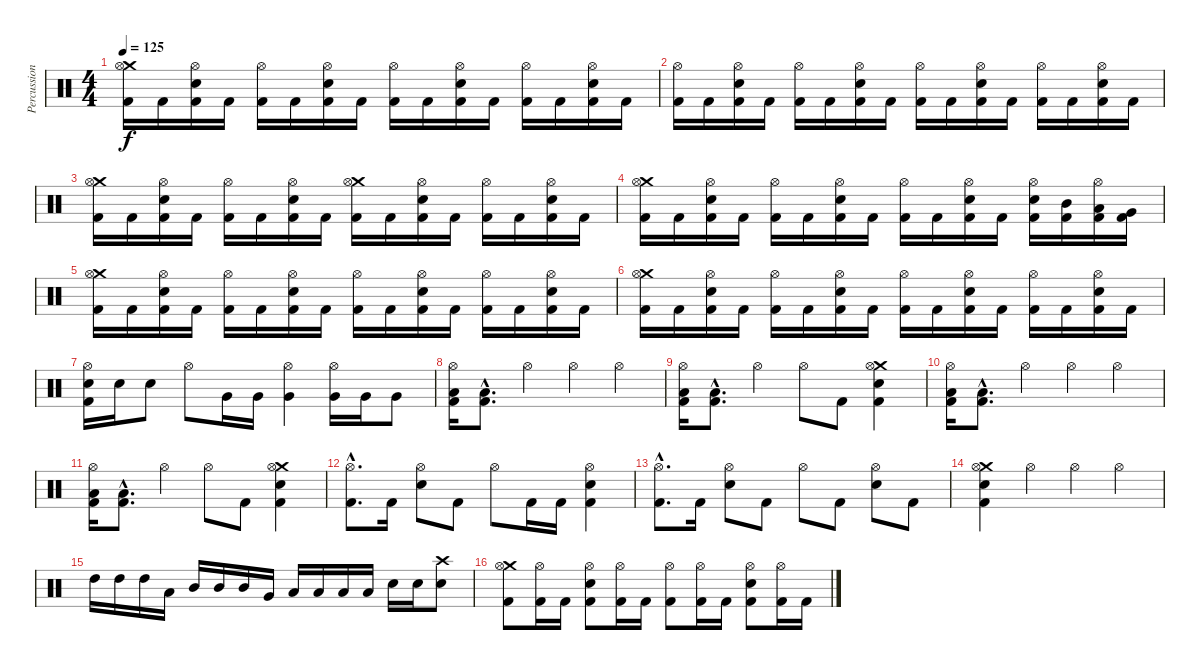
\track ("Percussion" "Percussion") {instrument percussion}
\staff {score}
\articulation defaults
\ts (4 4)
\tempo 125
\clef neutral
\ks c
("Crash medium (hit)" "Hi-Hat (open)" "Kick (hit) 2").16{dy f} "Kick (hit) 2".16 ("Hi-Hat (open)" "Electric Snare (hit)" "Kick (hit) 2").16 "Kick (hit) 2".16 ("Hi-Hat (open)" "Kick (hit) 2").16 "Kick (hit) 2".16 ("Hi-Hat (open)" "Electric Snare (hit)" "Kick (hit) 2").16 "Kick (hit) 2".16 ("Hi-Hat (open)" "Kick (hit) 2").16 "Kick (hit) 2".16 ("Hi-Hat (open)" "Electric Snare (hit)" "Kick (hit) 2").16 "Kick (hit) 2".16 ("Hi-Hat (open)" "Kick (hit) 2").16 "Kick (hit) 2".16 ("Hi-Hat (open)" "Electric Snare (hit)" "Kick (hit) 2").16 "Kick (hit) 2".16 |
("Hi-Hat (open)" "Kick (hit) 2").16 "Kick (hit) 2".16 ("Hi-Hat (open)" "Electric Snare (hit)" "Kick (hit) 2").16 "Kick (hit) 2".16 ("Hi-Hat (open)" "Kick (hit) 2").16 "Kick (hit) 2".16 ("Hi-Hat (open)" "Electric Snare (hit)" "Kick (hit) 2").16 "Kick (hit) 2".16 ("Hi-Hat (open)" "Kick (hit) 2").16 "Kick (hit) 2".16 ("Hi-Hat (open)" "Electric Snare (hit)" "Kick (hit) 2").16 "Kick (hit) 2".16 ("Hi-Hat (open)" "Kick (hit) 2").16 "Kick (hit) 2".16 ("Hi-Hat (open)" "Electric Snare (hit)" "Kick (hit) 2").16 "Kick (hit) 2".16 |
("Crash medium (hit)" "Hi-Hat (open)" "Kick (hit) 2").16 "Kick (hit) 2".16 ("Hi-Hat (open)" "Electric Snare (hit)" "Kick (hit) 2").16 "Kick (hit) 2".16 ("Hi-Hat (open)" "Kick (hit) 2").16 "Kick (hit) 2".16 ("Hi-Hat (open)" "Electric Snare (hit)" "Kick (hit) 2").16 "Kick (hit) 2".16 ("Crash medium (hit)" "Hi-Hat (open)" "Kick (hit) 2").16 "Kick (hit) 2".16 ("Hi-Hat (open)" "Electric Snare (hit)" "Kick (hit) 2").16 "Kick (hit) 2".16 ("Hi-Hat (open)" "Kick (hit) 2").16 "Kick (hit) 2".16 ("Hi-Hat (open)" "Electric Snare (hit)" "Kick (hit) 2").16 "Kick (hit) 2".16 |
("Crash medium (hit)" "Hi-Hat (open)" "Kick (hit) 2").16 "Kick (hit) 2".16 ("Hi-Hat (open)" "Electric Snare (hit)" "Kick (hit) 2").16 "Kick (hit) 2".16 ("Hi-Hat (open)" "Kick (hit) 2").16 "Kick (hit) 2".16 ("Hi-Hat (open)" "Electric Snare (hit)" "Kick (hit) 2").16 "Kick (hit) 2".16 ("Hi-Hat (open)" "Kick (hit) 2").16 "Kick (hit) 2".16 ("Hi-Hat (open)" "Electric Snare (hit)" "Kick (hit) 2").16 "Kick (hit) 2".16 ("Hi-Hat (open)" "Electric Snare (hit)" "Kick (hit) 2").16 ("Mid Tom (hit)" "Kick (hit) 2").16 ("Hi-Hat (open)" "Low Tom (hit)" "Kick (hit) 2").16 ("Very Low Tom (hit)" "Kick (hit) 2").16 |
("Crash medium (hit)" "Hi-Hat (open)" "Kick (hit) 2").16 "Kick (hit) 2".16 ("Hi-Hat (open)" "Electric Snare (hit)" "Kick (hit) 2").16 "Kick (hit) 2".16 ("Hi-Hat (open)" "Kick (hit) 2").16 "Kick (hit) 2".16 ("Hi-Hat (open)" "Electric Snare (hit)" "Kick (hit) 2").16 "Kick (hit) 2".16 ("Hi-Hat (open)" "Kick (hit) 2").16 "Kick (hit) 2".16 ("Hi-Hat (open)" "Electric Snare (hit)" "Kick (hit) 2").16 "Kick (hit) 2".16 ("Hi-Hat (open)" "Kick (hit) 2").16 "Kick (hit) 2".16 ("Hi-Hat (open)" "Electric Snare (hit)" "Kick (hit) 2").16 "Kick (hit) 2".16 |
("Crash medium (hit)" "Hi-Hat (open)" "Kick (hit) 2").16 "Kick (hit) 2".16 ("Hi-Hat (open)" "Electric Snare (hit)" "Kick (hit) 2").16 "Kick (hit) 2".16 ("Hi-Hat (open)" "Kick (hit) 2").16 "Kick (hit) 2".16 ("Hi-Hat (open)" "Electric Snare (hit)" "Kick (hit) 2").16 "Kick (hit) 2".16 ("Hi-Hat (open)" "Kick (hit) 2").16 "Kick (hit) 2".16 ("Hi-Hat (open)" "Electric Snare (hit)" "Kick (hit) 2").16 "Kick (hit) 2".16 ("Hi-Hat (open)" "Kick (hit) 2").16 "Kick (hit) 2".16 ("Hi-Hat (open)" "Electric Snare (hit)" "Kick (hit) 2").16 "Kick (hit) 2".16 |
("Hi-Hat (open)" "Electric Snare (hit)" "Kick (hit) 2").16 "Electric Snare (hit)".16 "Electric Snare (hit)".8 "Hi-Hat (open)".8 "Very Low Tom (hit)".16 "Very Low Tom (hit)".16 ("Hi-Hat (open)" "Very Low Tom (hit)").4 ("Hi-Hat (open)" "Very Low Tom (hit)").16 "Very Low Tom (hit)".16 "Very Low Tom (hit)".8 |
("Hi-Hat (open)" "Low Floor Tom (hit)" "Kick (hit) 2").16 ("Low Floor Tom (hit)"{hac} "Kick (hit) 2"{hac}).8{d} "Hi-Hat (open)".4 "Hi-Hat (open)".4 "Hi-Hat (open)".4 |
("Hi-Hat (open)" "Low Floor Tom (hit)" "Kick (hit) 2").16 ("Low Floor Tom (hit)"{hac} "Kick (hit) 2"{hac}).8{d} "Hi-Hat (open)".4 "Hi-Hat (open)".8 "Kick (hit) 2".8 ("Crash medium (hit)" "Hi-Hat (open)" "Electric Snare (hit)" "Kick (hit) 2").4 |
("Hi-Hat (open)" "Low Floor Tom (hit)" "Kick (hit) 2").16 ("Low Floor Tom (hit)"{hac} "Kick (hit) 2"{hac}).8{d} "Hi-Hat (open)".4 "Hi-Hat (open)".4 "Hi-Hat (open)".4 |
("Hi-Hat (open)" "Low Floor Tom (hit)" "Kick (hit) 2").16 ("Low Floor Tom (hit)"{hac} "Kick (hit) 2"{hac}).8{d} "Hi-Hat (open)".4 "Hi-Hat (open)".8 "Kick (hit) 2".8 ("Crash medium (hit)" "Hi-Hat (open)" "Electric Snare (hit)" "Kick (hit) 2").4 |
("Hi-Hat (open)"{hac} "Kick (hit) 2"{hac}).8{d} "Kick (hit) 2".16 ("Hi-Hat (open)" "Electric Snare (hit)").8 "Kick (hit) 2".8 "Hi-Hat (open)".8 "Kick (hit) 2".16 "Kick (hit) 2".16 ("Hi-Hat (open)" "Electric Snare (hit)" "Kick (hit) 2").4 |
("Hi-Hat (open)"{hac} "Kick (hit) 2"{hac}).8{d} "Kick (hit) 2".16 ("Hi-Hat (open)" "Electric Snare (hit)").8 "Kick (hit) 2".8 "Hi-Hat (open)".8 "Kick (hit) 2".8 ("Hi-Hat (open)" "Electric Snare (hit)").8 "Kick (hit) 2".8 |
("Crash medium (hit)" "Hi-Hat (open)" "Electric Snare (hit)" "Kick (hit) 2").4 "Hi-Hat (open)".4 "Hi-Hat (open)".4 "Hi-Hat (open)".4 |
"High Tom (hit)".16 "High Tom (hit)".16 "High Tom (hit)".16 "Low Tom (hit)".16 "Mid Tom (hit)".16 "Mid Tom (hit)".16 "Mid Tom (hit)".16 "Very Low Tom (hit)".16 "Low Tom (hit)".16 "Low Tom (hit)".16 "Low Tom (hit)".16 "Low Floor Tom (hit)".16 "Electric Snare (hit)".16 "Electric Snare (hit)".16 ("Crash high (hit)" "Electric Snare (hit)").8 |
("Crash medium (hit)" "Hi-Hat (open)" "Kick (hit) 2").8 ("Hi-Hat (open)" "Kick (hit) 2").16 "Kick (hit) 2".16 ("Hi-Hat (open)" "Electric Snare (hit)" "Kick (hit) 2").8 ("Hi-Hat (open)" "Kick (hit) 2").16 "Kick (hit) 2".16 ("Hi-Hat (open)" "Kick (hit) 2").8 ("Hi-Hat (open)" "Kick (hit) 2").16 "Kick (hit) 2".16 ("Hi-Hat (open)" "Electric Snare (hit)" "Kick (hit) 2").8 ("Hi-Hat (open)" "Kick (hit) 2").16 "Kick (hit) 2".16
